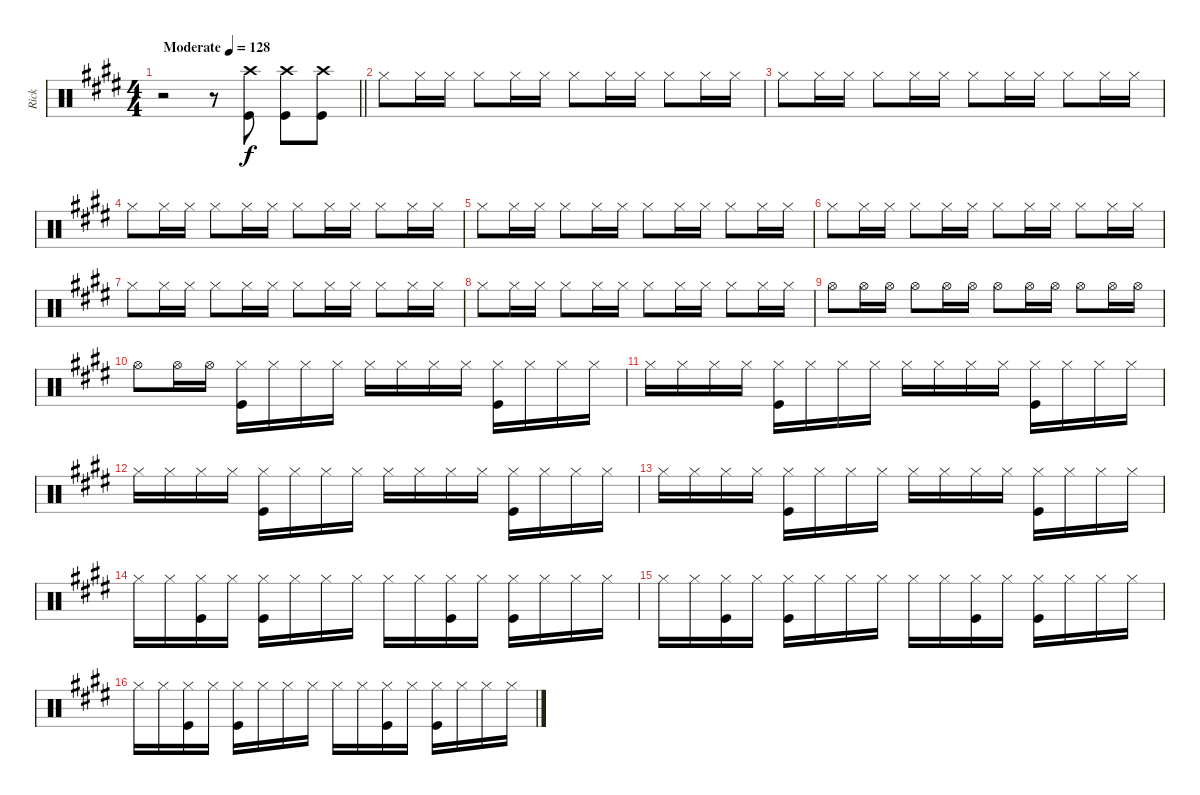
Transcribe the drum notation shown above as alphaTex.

\track ("Rick" "Rick") {instrument percussion}
\staff {score}
\articulation defaults
\ts (4 4)
\tempo (128 "Moderate")
\clef neutral
\barLineRight lightlight
\ks c#minor
r.2{dy f} r.8 ("Crash high (hit)" "Kick (hit)").8 ("Crash high (hit)" "Kick (hit)").8 ("Crash high (hit)" "Kick (hit)").8 |
"Hi-Hat (closed)".8 "Hi-Hat (closed)".16 "Hi-Hat (closed)".16 "Hi-Hat (closed)".8 "Hi-Hat (closed)".16 "Hi-Hat (closed)".16 "Hi-Hat (closed)".8 "Hi-Hat (closed)".16 "Hi-Hat (closed)".16 "Hi-Hat (closed)".8 "Hi-Hat (closed)".16 "Hi-Hat (closed)".16 |
"Hi-Hat (closed)".8 "Hi-Hat (closed)".16 "Hi-Hat (closed)".16 "Hi-Hat (closed)".8 "Hi-Hat (closed)".16 "Hi-Hat (closed)".16 "Hi-Hat (closed)".8 "Hi-Hat (closed)".16 "Hi-Hat (closed)".16 "Hi-Hat (closed)".8 "Hi-Hat (closed)".16 "Hi-Hat (closed)".16 |
"Hi-Hat (closed)".8 "Hi-Hat (closed)".16 "Hi-Hat (closed)".16 "Hi-Hat (closed)".8 "Hi-Hat (closed)".16 "Hi-Hat (closed)".16 "Hi-Hat (closed)".8 "Hi-Hat (closed)".16 "Hi-Hat (closed)".16 "Hi-Hat (closed)".8 "Hi-Hat (closed)".16 "Hi-Hat (closed)".16 |
"Hi-Hat (closed)".8 "Hi-Hat (closed)".16 "Hi-Hat (closed)".16 "Hi-Hat (closed)".8 "Hi-Hat (closed)".16 "Hi-Hat (closed)".16 "Hi-Hat (closed)".8 "Hi-Hat (closed)".16 "Hi-Hat (closed)".16 "Hi-Hat (closed)".8 "Hi-Hat (closed)".16 "Hi-Hat (closed)".16 |
"Hi-Hat (closed)".8 "Hi-Hat (closed)".16 "Hi-Hat (closed)".16 "Hi-Hat (closed)".8 "Hi-Hat (closed)".16 "Hi-Hat (closed)".16 "Hi-Hat (closed)".8 "Hi-Hat (closed)".16 "Hi-Hat (closed)".16 "Hi-Hat (closed)".8 "Hi-Hat (closed)".16 "Hi-Hat (closed)".16 |
"Hi-Hat (closed)".8 "Hi-Hat (closed)".16 "Hi-Hat (closed)".16 "Hi-Hat (closed)".8 "Hi-Hat (closed)".16 "Hi-Hat (closed)".16 "Hi-Hat (closed)".8 "Hi-Hat (closed)".16 "Hi-Hat (closed)".16 "Hi-Hat (closed)".8 "Hi-Hat (closed)".16 "Hi-Hat (closed)".16 |
"Hi-Hat (closed)".8 "Hi-Hat (closed)".16 "Hi-Hat (closed)".16 "Hi-Hat (closed)".8 "Hi-Hat (closed)".16 "Hi-Hat (closed)".16 "Hi-Hat (closed)".8 "Hi-Hat (closed)".16 "Hi-Hat (closed)".16 "Hi-Hat (closed)".8 "Hi-Hat (closed)".16 "Hi-Hat (closed)".16 |
"Hi-Hat (open)".8 "Hi-Hat (open)".16 "Hi-Hat (open)".16 "Hi-Hat (open)".8 "Hi-Hat (open)".16 "Hi-Hat (open)".16 "Hi-Hat (open)".8 "Hi-Hat (open)".16 "Hi-Hat (open)".16 "Hi-Hat (open)".8 "Hi-Hat (open)".16 "Hi-Hat (open)".16 |
"Hi-Hat (open)".8 "Hi-Hat (open)".16 "Hi-Hat (open)".16 ("Hi-Hat (closed)" "Kick (hit)").16 "Hi-Hat (closed)".16 "Hi-Hat (closed)".16 "Hi-Hat (closed)".16 "Hi-Hat (closed)".16 "Hi-Hat (closed)".16 "Hi-Hat (closed)".16 "Hi-Hat (closed)".16 ("Hi-Hat (closed)" "Kick (hit)").16 "Hi-Hat (closed)".16 "Hi-Hat (closed)".16 "Hi-Hat (closed)".16 |
"Hi-Hat (closed)".16 "Hi-Hat (closed)".16 "Hi-Hat (closed)".16 "Hi-Hat (closed)".16 ("Hi-Hat (closed)" "Kick (hit)").16 "Hi-Hat (closed)".16 "Hi-Hat (closed)".16 "Hi-Hat (closed)".16 "Hi-Hat (closed)".16 "Hi-Hat (closed)".16 "Hi-Hat (closed)".16 "Hi-Hat (closed)".16 ("Hi-Hat (closed)" "Kick (hit)").16 "Hi-Hat (closed)".16 "Hi-Hat (closed)".16 "Hi-Hat (closed)".16 |
"Hi-Hat (closed)".16 "Hi-Hat (closed)".16 "Hi-Hat (closed)".16 "Hi-Hat (closed)".16 ("Hi-Hat (closed)" "Kick (hit)").16 "Hi-Hat (closed)".16 "Hi-Hat (closed)".16 "Hi-Hat (closed)".16 "Hi-Hat (closed)".16 "Hi-Hat (closed)".16 "Hi-Hat (closed)".16 "Hi-Hat (closed)".16 ("Hi-Hat (closed)" "Kick (hit)").16 "Hi-Hat (closed)".16 "Hi-Hat (closed)".16 "Hi-Hat (closed)".16 |
"Hi-Hat (closed)".16 "Hi-Hat (closed)".16 "Hi-Hat (closed)".16 "Hi-Hat (closed)".16 ("Hi-Hat (closed)" "Kick (hit)").16 "Hi-Hat (closed)".16 "Hi-Hat (closed)".16 "Hi-Hat (closed)".16 "Hi-Hat (closed)".16 "Hi-Hat (closed)".16 "Hi-Hat (closed)".16 "Hi-Hat (closed)".16 ("Hi-Hat (closed)" "Kick (hit)").16 "Hi-Hat (closed)".16 "Hi-Hat (closed)".16 "Hi-Hat (closed)".16 |
"Hi-Hat (closed)".16 "Hi-Hat (closed)".16 ("Hi-Hat (closed)" "Kick (hit)").16 "Hi-Hat (closed)".16 ("Hi-Hat (closed)" "Kick (hit)").16 "Hi-Hat (closed)".16 "Hi-Hat (closed)".16 "Hi-Hat (closed)".16 "Hi-Hat (closed)".16 "Hi-Hat (closed)".16 ("Hi-Hat (closed)" "Kick (hit)").16 "Hi-Hat (closed)".16 ("Hi-Hat (closed)" "Kick (hit)").16 "Hi-Hat (closed)".16 "Hi-Hat (closed)".16 "Hi-Hat (closed)".16 |
"Hi-Hat (closed)".16 "Hi-Hat (closed)".16 ("Hi-Hat (closed)" "Kick (hit)").16 "Hi-Hat (closed)".16 ("Hi-Hat (closed)" "Kick (hit)").16 "Hi-Hat (closed)".16 "Hi-Hat (closed)".16 "Hi-Hat (closed)".16 "Hi-Hat (closed)".16 "Hi-Hat (closed)".16 ("Hi-Hat (closed)" "Kick (hit)").16 "Hi-Hat (closed)".16 ("Hi-Hat (closed)" "Kick (hit)").16 "Hi-Hat (closed)".16 "Hi-Hat (closed)".16 "Hi-Hat (closed)".16 |
"Hi-Hat (closed)".16 "Hi-Hat (closed)".16 ("Hi-Hat (closed)" "Kick (hit)").16 "Hi-Hat (closed)".16 ("Hi-Hat (closed)" "Kick (hit)").16 "Hi-Hat (closed)".16 "Hi-Hat (closed)".16 "Hi-Hat (closed)".16 "Hi-Hat (closed)".16 "Hi-Hat (closed)".16 ("Hi-Hat (closed)" "Kick (hit)").16 "Hi-Hat (closed)".16 ("Hi-Hat (closed)" "Kick (hit)").16 "Hi-Hat (closed)".16 "Hi-Hat (closed)".16 "Hi-Hat (closed)".16
